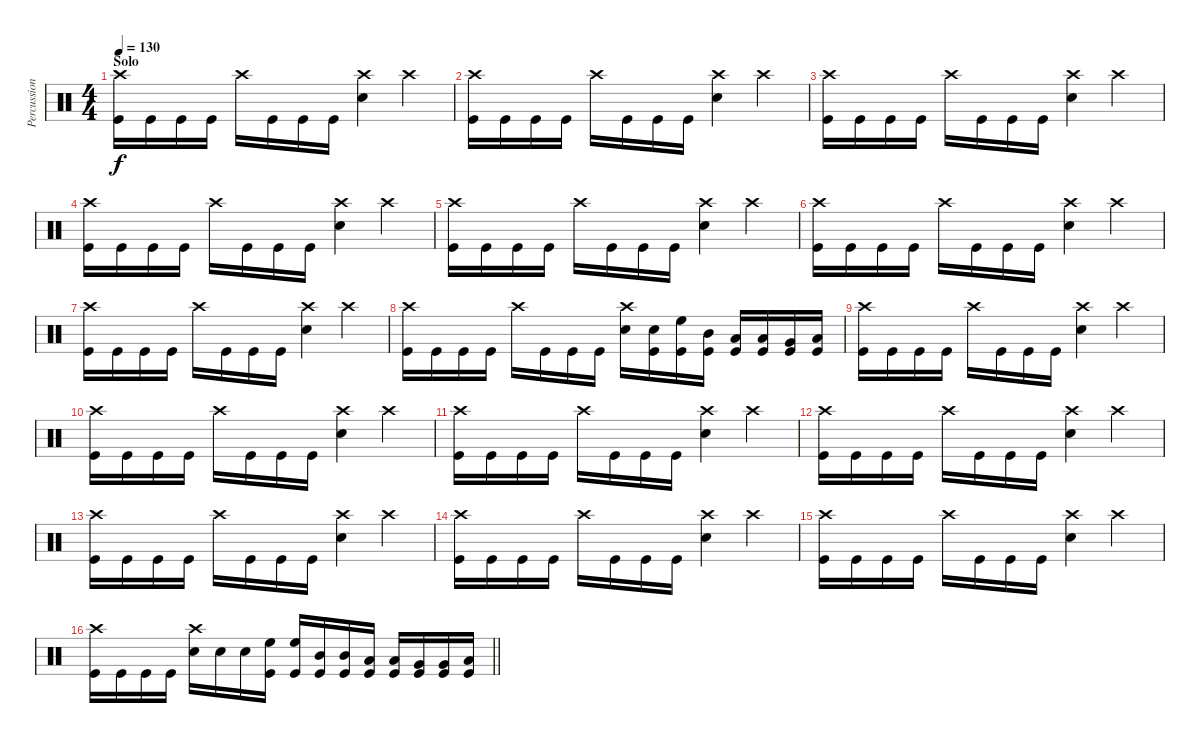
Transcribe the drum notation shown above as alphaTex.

\track ("Percussion" "Percussion") {instrument percussion}
\staff {score}
\articulation defaults
\ts (4 4)
\section ("" "Solo")
\tempo 130
\clef neutral
\ks c
("Crash high (hit)" "Kick (hit)").16{dy f} "Kick (hit)".16 "Kick (hit)".16 "Kick (hit)".16 "Crash high (hit)".16 "Kick (hit)".16 "Kick (hit)".16 "Kick (hit)".16 ("Crash high (hit)" "Snare (hit) 2").4 "Crash high (hit)".4 |
("Crash high (hit)" "Kick (hit)").16 "Kick (hit)".16 "Kick (hit)".16 "Kick (hit)".16 "Crash high (hit)".16 "Kick (hit)".16 "Kick (hit)".16 "Kick (hit)".16 ("Crash high (hit)" "Snare (hit) 2").4 "Crash high (hit)".4 |
("Crash high (hit)" "Kick (hit)").16 "Kick (hit)".16 "Kick (hit)".16 "Kick (hit)".16 "Crash high (hit)".16 "Kick (hit)".16 "Kick (hit)".16 "Kick (hit)".16 ("Crash high (hit)" "Snare (hit) 2").4 "Crash high (hit)".4 |
("Crash high (hit)" "Kick (hit)").16 "Kick (hit)".16 "Kick (hit)".16 "Kick (hit)".16 "Crash high (hit)".16 "Kick (hit)".16 "Kick (hit)".16 "Kick (hit)".16 ("Crash high (hit)" "Snare (hit) 2").4 "Crash high (hit)".4 |
("Crash high (hit)" "Kick (hit)").16 "Kick (hit)".16 "Kick (hit)".16 "Kick (hit)".16 "Crash high (hit)".16 "Kick (hit)".16 "Kick (hit)".16 "Kick (hit)".16 ("Crash high (hit)" "Snare (hit) 2").4 "Crash high (hit)".4 |
("Crash high (hit)" "Kick (hit)").16 "Kick (hit)".16 "Kick (hit)".16 "Kick (hit)".16 "Crash high (hit)".16 "Kick (hit)".16 "Kick (hit)".16 "Kick (hit)".16 ("Crash high (hit)" "Snare (hit) 2").4 "Crash high (hit)".4 |
("Crash high (hit)" "Kick (hit)").16 "Kick (hit)".16 "Kick (hit)".16 "Kick (hit)".16 "Crash high (hit)".16 "Kick (hit)".16 "Kick (hit)".16 "Kick (hit)".16 ("Crash high (hit)" "Snare (hit) 2").4 "Crash high (hit)".4 |
("Crash high (hit)" "Kick (hit)").16 "Kick (hit)".16 "Kick (hit)".16 "Kick (hit)".16 "Crash high (hit)".16 "Kick (hit)".16 "Kick (hit)".16 "Kick (hit)".16 ("Crash high (hit)" "Snare (hit) 2").16 ("Snare (hit) 2" "Kick (hit)").16 ("High Floor Tom (hit)" "Kick (hit)").16 ("Mid Tom (hit)" "Kick (hit)").16 ("Low Tom (hit)" "Kick (hit)").16 ("Low Tom (hit)" "Kick (hit)").16 ("Very Low Tom (hit)" "Kick (hit)").16 ("Low Floor Tom (hit)" "Kick (hit)").16 |
("Crash high (hit)" "Kick (hit)").16 "Kick (hit)".16 "Kick (hit)".16 "Kick (hit)".16 "Crash high (hit)".16 "Kick (hit)".16 "Kick (hit)".16 "Kick (hit)".16 ("Crash high (hit)" "Snare (hit) 2").4 "Crash high (hit)".4 |
("Crash high (hit)" "Kick (hit)").16 "Kick (hit)".16 "Kick (hit)".16 "Kick (hit)".16 "Crash high (hit)".16 "Kick (hit)".16 "Kick (hit)".16 "Kick (hit)".16 ("Crash high (hit)" "Snare (hit) 2").4 "Crash high (hit)".4 |
("Crash high (hit)" "Kick (hit)").16 "Kick (hit)".16 "Kick (hit)".16 "Kick (hit)".16 "Crash high (hit)".16 "Kick (hit)".16 "Kick (hit)".16 "Kick (hit)".16 ("Crash high (hit)" "Snare (hit) 2").4 "Crash high (hit)".4 |
("Crash high (hit)" "Kick (hit)").16 "Kick (hit)".16 "Kick (hit)".16 "Kick (hit)".16 "Crash high (hit)".16 "Kick (hit)".16 "Kick (hit)".16 "Kick (hit)".16 ("Crash high (hit)" "Snare (hit) 2").4 "Crash high (hit)".4 |
("Crash high (hit)" "Kick (hit)").16 "Kick (hit)".16 "Kick (hit)".16 "Kick (hit)".16 "Crash high (hit)".16 "Kick (hit)".16 "Kick (hit)".16 "Kick (hit)".16 ("Crash high (hit)" "Snare (hit) 2").4 "Crash high (hit)".4 |
("Crash high (hit)" "Kick (hit)").16 "Kick (hit)".16 "Kick (hit)".16 "Kick (hit)".16 "Crash high (hit)".16 "Kick (hit)".16 "Kick (hit)".16 "Kick (hit)".16 ("Crash high (hit)" "Snare (hit) 2").4 "Crash high (hit)".4 |
("Crash high (hit)" "Kick (hit)").16 "Kick (hit)".16 "Kick (hit)".16 "Kick (hit)".16 "Crash high (hit)".16 "Kick (hit)".16 "Kick (hit)".16 "Kick (hit)".16 ("Crash high (hit)" "Snare (hit) 2").4 "Crash high (hit)".4 |
\barLineRight lightlight
("Crash high (hit)" "Kick (hit)").16 "Kick (hit)".16 "Kick (hit)".16 "Kick (hit)".16 ("Crash high (hit)" "Snare (hit) 2").16 "Snare (hit) 2".16 "Snare (hit) 2".16 ("High Floor Tom (hit)" "Kick (hit)").16 ("High Floor Tom (hit)" "Kick (hit)").16 ("Mid Tom (hit)" "Kick (hit)").16 ("Mid Tom (hit)" "Kick (hit)").16 ("Low Tom (hit)" "Kick (hit)").16 ("Low Tom (hit)" "Kick (hit)").16 ("Very Low Tom (hit)" "Kick (hit)").16 ("Very Low Tom (hit)" "Kick (hit)").16 ("Low Floor Tom (hit)" "Kick (hit)").16
